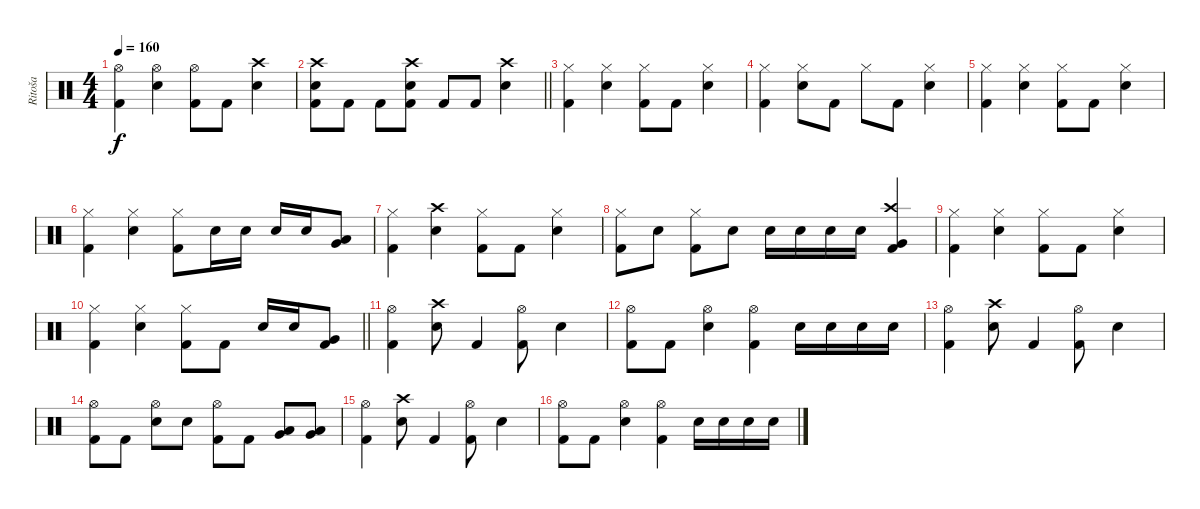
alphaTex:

\track ("Ritoša" "Ritoša") {instrument percussion}
\staff {score}
\articulation defaults
\ts (4 4)
\tempo 160
\clef neutral
\ks c
("Hi-Hat (open)" "Kick (hit) 2").4{dy f} ("Hi-Hat (open)" "Electric Snare (hit)").4 ("Hi-Hat (open)" "Kick (hit) 2").8 "Kick (hit) 2".8 ("Crash high (hit)" "Electric Snare (hit)").4 |
\barLineRight lightlight
("Crash high (hit)" "Electric Snare (hit)" "Kick (hit) 2").8 "Kick (hit) 2".8 "Kick (hit) 2".8 ("Crash high (hit)" "Electric Snare (hit)" "Kick (hit) 2").8 "Kick (hit) 2".8 "Kick (hit) 2".8 ("Crash high (hit)" "Electric Snare (hit)").4 |
("Hi-Hat (closed)" "Kick (hit) 2").4 ("Hi-Hat (closed)" "Electric Snare (hit)").4 ("Hi-Hat (closed)" "Kick (hit) 2").8 "Kick (hit) 2".8 ("Hi-Hat (closed)" "Electric Snare (hit)").4 |
("Hi-Hat (closed)" "Kick (hit) 2").4 ("Hi-Hat (closed)" "Electric Snare (hit)").8 "Kick (hit) 2".8 "Hi-Hat (closed)".8 "Kick (hit) 2".8 ("Hi-Hat (closed)" "Electric Snare (hit)").4 |
("Hi-Hat (closed)" "Kick (hit) 2").4 ("Hi-Hat (closed)" "Electric Snare (hit)").4 ("Hi-Hat (closed)" "Kick (hit) 2").8 "Kick (hit) 2".8 ("Hi-Hat (closed)" "Electric Snare (hit)").4 |
("Hi-Hat (closed)" "Kick (hit) 2").4 ("Hi-Hat (closed)" "Electric Snare (hit)").4 ("Hi-Hat (closed)" "Kick (hit) 2").8 "Electric Snare (hit)".16 "Electric Snare (hit)".16 "Electric Snare (hit)".16 "Electric Snare (hit)".16 ("Very Low Tom (hit)" "Low Tom (hit)").8 |
("Hi-Hat (closed)" "Kick (hit) 2").4 ("Crash high (hit)" "Electric Snare (hit)").4 ("Hi-Hat (closed)" "Kick (hit) 2").8 "Kick (hit) 2".8 ("Hi-Hat (closed)" "Electric Snare (hit)").4 |
("Hi-Hat (closed)" "Kick (hit) 2").8 "Electric Snare (hit)".8 ("Hi-Hat (closed)" "Kick (hit) 2").8 "Electric Snare (hit)".8 "Electric Snare (hit)".16 "Electric Snare (hit)".16 "Electric Snare (hit)".16 "Electric Snare (hit)".16 ("Crash high (hit)" "Very Low Tom (hit)" "Kick (hit) 2").4 |
("Hi-Hat (closed)" "Kick (hit) 2").4 ("Hi-Hat (closed)" "Electric Snare (hit)").4 ("Hi-Hat (closed)" "Kick (hit) 2").8 "Kick (hit) 2".8 ("Hi-Hat (closed)" "Electric Snare (hit)").4 |
\barLineRight lightlight
("Hi-Hat (closed)" "Kick (hit) 2").4 ("Hi-Hat (closed)" "Electric Snare (hit)").4 ("Hi-Hat (closed)" "Kick (hit) 2").8 "Kick (hit) 2".8 "Electric Snare (hit)".16 "Electric Snare (hit)".16 ("Very Low Tom (hit)" "Kick (hit) 2").8 |
("Hi-Hat (open)" "Kick (hit) 2").4 ("Crash high (hit)" "Electric Snare (hit)").8 "Kick (hit) 2".4 ("Hi-Hat (open)" "Kick (hit) 2").8 "Electric Snare (hit)".4 |
("Hi-Hat (open)" "Kick (hit) 2").8 "Kick (hit) 2".8 ("Hi-Hat (open)" "Electric Snare (hit)").4 ("Hi-Hat (open)" "Kick (hit) 2").4 "Electric Snare (hit)".16 "Electric Snare (hit)".16 "Electric Snare (hit)".16 "Electric Snare (hit)".16 |
("Hi-Hat (open)" "Kick (hit) 2").4 ("Crash high (hit)" "Electric Snare (hit)").8 "Kick (hit) 2".4 ("Hi-Hat (open)" "Kick (hit) 2").8 "Electric Snare (hit)".4 |
("Hi-Hat (open)" "Kick (hit) 2").8 "Kick (hit) 2".8 ("Hi-Hat (open)" "Electric Snare (hit)").8 "Electric Snare (hit)".8 ("Hi-Hat (open)" "Kick (hit) 2").8 "Kick (hit) 2".8 ("Very Low Tom (hit)" "Low Floor Tom (hit)").8 ("Very Low Tom (hit)" "Low Floor Tom (hit)").8 |
("Hi-Hat (open)" "Kick (hit) 2").4 ("Crash high (hit)" "Electric Snare (hit)").8 "Kick (hit) 2".4 ("Hi-Hat (open)" "Kick (hit) 2").8 "Electric Snare (hit)".4 |
("Hi-Hat (open)" "Kick (hit) 2").8 "Kick (hit) 2".8 ("Hi-Hat (open)" "Electric Snare (hit)").4 ("Hi-Hat (open)" "Kick (hit) 2").4 "Electric Snare (hit)".16 "Electric Snare (hit)".16 "Electric Snare (hit)".16 "Electric Snare (hit)".16
